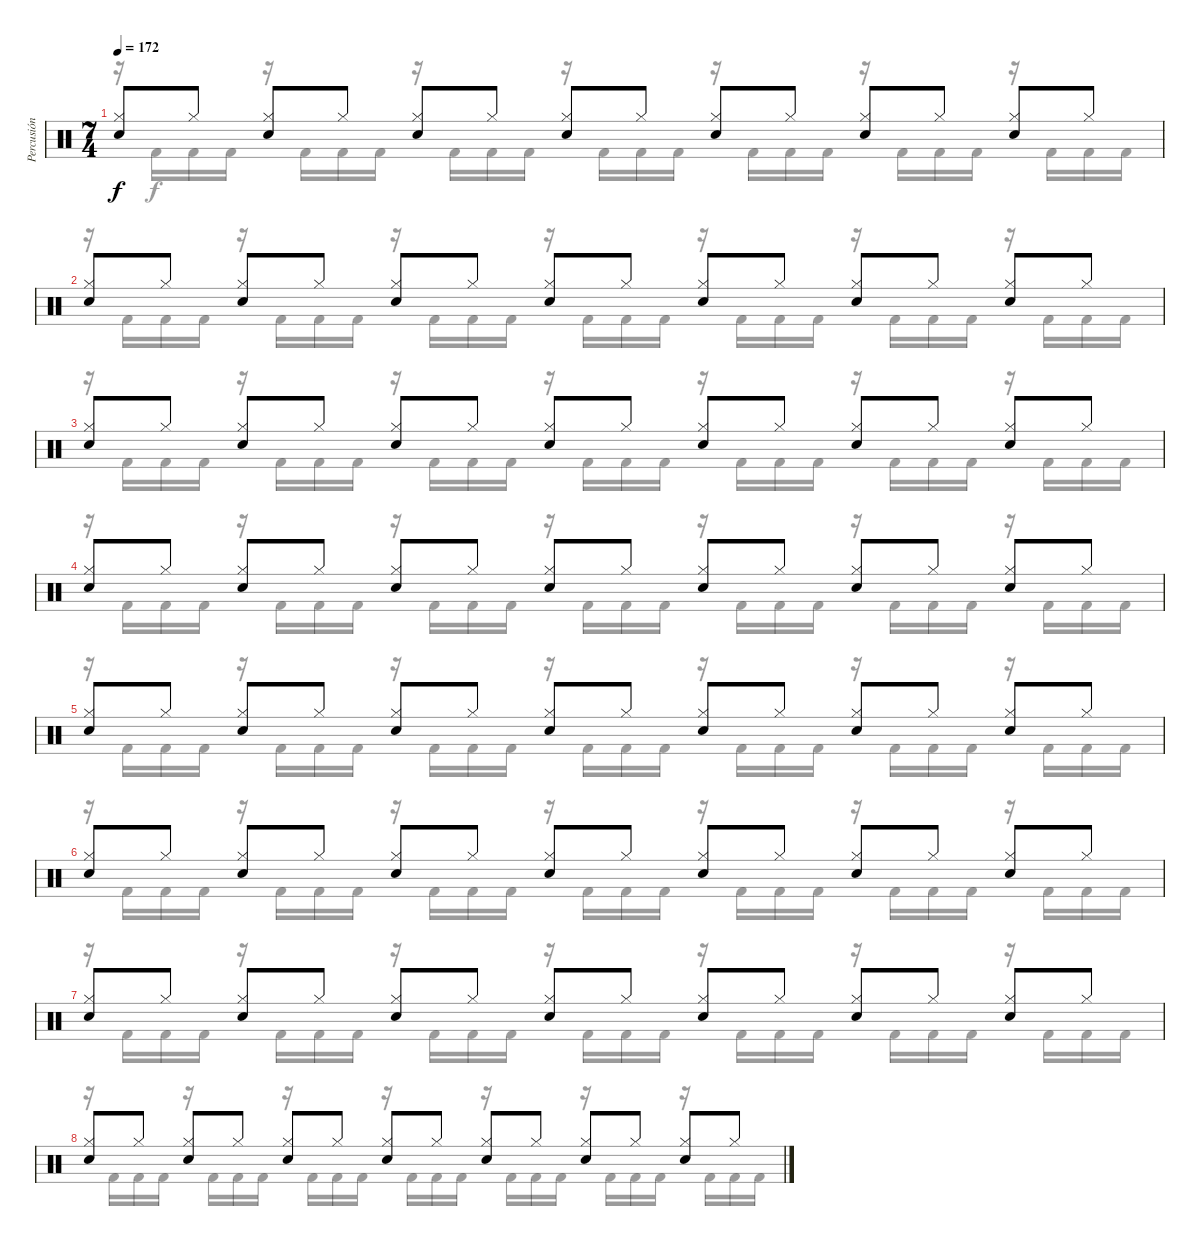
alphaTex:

\track ("Percusión" "Percusión") {instrument percussion}
\staff {score}
\articulation defaults
\voice
\ts (7 4)
\tempo 172
\clef neutral
\ks c
("Hi-Hat (closed)" "Snare (hit) 2").8{dy f} "Hi-Hat (closed)".8 ("Hi-Hat (closed)" "Snare (hit) 2").8 "Hi-Hat (closed)".8 ("Hi-Hat (closed)" "Snare (hit) 2").8 "Hi-Hat (closed)".8 ("Hi-Hat (closed)" "Snare (hit) 2").8 "Hi-Hat (closed)".8 ("Hi-Hat (closed)" "Snare (hit) 2").8 "Hi-Hat (closed)".8 ("Hi-Hat (closed)" "Snare (hit) 2").8 "Hi-Hat (closed)".8 ("Hi-Hat (closed)" "Snare (hit) 2").8 "Hi-Hat (closed)".8 |
("Hi-Hat (closed)" "Snare (hit) 2").8 "Hi-Hat (closed)".8 ("Hi-Hat (closed)" "Snare (hit) 2").8 "Hi-Hat (closed)".8 ("Hi-Hat (closed)" "Snare (hit) 2").8 "Hi-Hat (closed)".8 ("Hi-Hat (closed)" "Snare (hit) 2").8 "Hi-Hat (closed)".8 ("Hi-Hat (closed)" "Snare (hit) 2").8 "Hi-Hat (closed)".8 ("Hi-Hat (closed)" "Snare (hit) 2").8 "Hi-Hat (closed)".8 ("Hi-Hat (closed)" "Snare (hit) 2").8 "Hi-Hat (closed)".8 |
("Hi-Hat (closed)" "Snare (hit) 2").8 "Hi-Hat (closed)".8 ("Hi-Hat (closed)" "Snare (hit) 2").8 "Hi-Hat (closed)".8 ("Hi-Hat (closed)" "Snare (hit) 2").8 "Hi-Hat (closed)".8 ("Hi-Hat (closed)" "Snare (hit) 2").8 "Hi-Hat (closed)".8 ("Hi-Hat (closed)" "Snare (hit) 2").8 "Hi-Hat (closed)".8 ("Hi-Hat (closed)" "Snare (hit) 2").8 "Hi-Hat (closed)".8 ("Hi-Hat (closed)" "Snare (hit) 2").8 "Hi-Hat (closed)".8 |
("Hi-Hat (closed)" "Snare (hit) 2").8 "Hi-Hat (closed)".8 ("Hi-Hat (closed)" "Snare (hit) 2").8 "Hi-Hat (closed)".8 ("Hi-Hat (closed)" "Snare (hit) 2").8 "Hi-Hat (closed)".8 ("Hi-Hat (closed)" "Snare (hit) 2").8 "Hi-Hat (closed)".8 ("Hi-Hat (closed)" "Snare (hit) 2").8 "Hi-Hat (closed)".8 ("Hi-Hat (closed)" "Snare (hit) 2").8 "Hi-Hat (closed)".8 ("Hi-Hat (closed)" "Snare (hit) 2").8 "Hi-Hat (closed)".8 |
("Hi-Hat (closed)" "Snare (hit) 2").8 "Hi-Hat (closed)".8 ("Hi-Hat (closed)" "Snare (hit) 2").8 "Hi-Hat (closed)".8 ("Hi-Hat (closed)" "Snare (hit) 2").8 "Hi-Hat (closed)".8 ("Hi-Hat (closed)" "Snare (hit) 2").8 "Hi-Hat (closed)".8 ("Hi-Hat (closed)" "Snare (hit) 2").8 "Hi-Hat (closed)".8 ("Hi-Hat (closed)" "Snare (hit) 2").8 "Hi-Hat (closed)".8 ("Hi-Hat (closed)" "Snare (hit) 2").8 "Hi-Hat (closed)".8 |
("Hi-Hat (closed)" "Snare (hit) 2").8 "Hi-Hat (closed)".8 ("Hi-Hat (closed)" "Snare (hit) 2").8 "Hi-Hat (closed)".8 ("Hi-Hat (closed)" "Snare (hit) 2").8 "Hi-Hat (closed)".8 ("Hi-Hat (closed)" "Snare (hit) 2").8 "Hi-Hat (closed)".8 ("Hi-Hat (closed)" "Snare (hit) 2").8 "Hi-Hat (closed)".8 ("Hi-Hat (closed)" "Snare (hit) 2").8 "Hi-Hat (closed)".8 ("Hi-Hat (closed)" "Snare (hit) 2").8 "Hi-Hat (closed)".8 |
("Hi-Hat (closed)" "Snare (hit) 2").8 "Hi-Hat (closed)".8 ("Hi-Hat (closed)" "Snare (hit) 2").8 "Hi-Hat (closed)".8 ("Hi-Hat (closed)" "Snare (hit) 2").8 "Hi-Hat (closed)".8 ("Hi-Hat (closed)" "Snare (hit) 2").8 "Hi-Hat (closed)".8 ("Hi-Hat (closed)" "Snare (hit) 2").8 "Hi-Hat (closed)".8 ("Hi-Hat (closed)" "Snare (hit) 2").8 "Hi-Hat (closed)".8 ("Hi-Hat (closed)" "Snare (hit) 2").8 "Hi-Hat (closed)".8 |
("Hi-Hat (closed)" "Snare (hit) 2").8 "Hi-Hat (closed)".8 ("Hi-Hat (closed)" "Snare (hit) 2").8 "Hi-Hat (closed)".8 ("Hi-Hat (closed)" "Snare (hit) 2").8 "Hi-Hat (closed)".8 ("Hi-Hat (closed)" "Snare (hit) 2").8 "Hi-Hat (closed)".8 ("Hi-Hat (closed)" "Snare (hit) 2").8 "Hi-Hat (closed)".8 ("Hi-Hat (closed)" "Snare (hit) 2").8 "Hi-Hat (closed)".8 ("Hi-Hat (closed)" "Snare (hit) 2").8 "Hi-Hat (closed)".8
\voice
\clef neutral
\ottava regular
\simile none
\ks c
r.16{dy f} "Kick (hit) 2".16 "Kick (hit) 2".16 "Kick (hit) 2".16 r.16 "Kick (hit) 2".16 "Kick (hit) 2".16 "Kick (hit) 2".16 r.16 "Kick (hit) 2".16 "Kick (hit) 2".16 "Kick (hit) 2".16 r.16 "Kick (hit) 2".16 "Kick (hit) 2".16 "Kick (hit) 2".16 r.16 "Kick (hit) 2".16 "Kick (hit) 2".16 "Kick (hit) 2".16 r.16 "Kick (hit) 2".16 "Kick (hit) 2".16 "Kick (hit) 2".16 r.16 "Kick (hit) 2".16 "Kick (hit) 2".16 "Kick (hit) 2".16 |
r.16 "Kick (hit) 2".16 "Kick (hit) 2".16 "Kick (hit) 2".16 r.16 "Kick (hit) 2".16 "Kick (hit) 2".16 "Kick (hit) 2".16 r.16 "Kick (hit) 2".16 "Kick (hit) 2".16 "Kick (hit) 2".16 r.16 "Kick (hit) 2".16 "Kick (hit) 2".16 "Kick (hit) 2".16 r.16 "Kick (hit) 2".16 "Kick (hit) 2".16 "Kick (hit) 2".16 r.16 "Kick (hit) 2".16 "Kick (hit) 2".16 "Kick (hit) 2".16 r.16 "Kick (hit) 2".16 "Kick (hit) 2".16 "Kick (hit) 2".16 |
r.16 "Kick (hit) 2".16 "Kick (hit) 2".16 "Kick (hit) 2".16 r.16 "Kick (hit) 2".16 "Kick (hit) 2".16 "Kick (hit) 2".16 r.16 "Kick (hit) 2".16 "Kick (hit) 2".16 "Kick (hit) 2".16 r.16 "Kick (hit) 2".16 "Kick (hit) 2".16 "Kick (hit) 2".16 r.16 "Kick (hit) 2".16 "Kick (hit) 2".16 "Kick (hit) 2".16 r.16 "Kick (hit) 2".16 "Kick (hit) 2".16 "Kick (hit) 2".16 r.16 "Kick (hit) 2".16 "Kick (hit) 2".16 "Kick (hit) 2".16 |
r.16 "Kick (hit) 2".16 "Kick (hit) 2".16 "Kick (hit) 2".16 r.16 "Kick (hit) 2".16 "Kick (hit) 2".16 "Kick (hit) 2".16 r.16 "Kick (hit) 2".16 "Kick (hit) 2".16 "Kick (hit) 2".16 r.16 "Kick (hit) 2".16 "Kick (hit) 2".16 "Kick (hit) 2".16 r.16 "Kick (hit) 2".16 "Kick (hit) 2".16 "Kick (hit) 2".16 r.16 "Kick (hit) 2".16 "Kick (hit) 2".16 "Kick (hit) 2".16 r.16 "Kick (hit) 2".16 "Kick (hit) 2".16 "Kick (hit) 2".16 |
r.16 "Kick (hit) 2".16 "Kick (hit) 2".16 "Kick (hit) 2".16 r.16 "Kick (hit) 2".16 "Kick (hit) 2".16 "Kick (hit) 2".16 r.16 "Kick (hit) 2".16 "Kick (hit) 2".16 "Kick (hit) 2".16 r.16 "Kick (hit) 2".16 "Kick (hit) 2".16 "Kick (hit) 2".16 r.16 "Kick (hit) 2".16 "Kick (hit) 2".16 "Kick (hit) 2".16 r.16 "Kick (hit) 2".16 "Kick (hit) 2".16 "Kick (hit) 2".16 r.16 "Kick (hit) 2".16 "Kick (hit) 2".16 "Kick (hit) 2".16 |
r.16 "Kick (hit) 2".16 "Kick (hit) 2".16 "Kick (hit) 2".16 r.16 "Kick (hit) 2".16 "Kick (hit) 2".16 "Kick (hit) 2".16 r.16 "Kick (hit) 2".16 "Kick (hit) 2".16 "Kick (hit) 2".16 r.16 "Kick (hit) 2".16 "Kick (hit) 2".16 "Kick (hit) 2".16 r.16 "Kick (hit) 2".16 "Kick (hit) 2".16 "Kick (hit) 2".16 r.16 "Kick (hit) 2".16 "Kick (hit) 2".16 "Kick (hit) 2".16 r.16 "Kick (hit) 2".16 "Kick (hit) 2".16 "Kick (hit) 2".16 |
r.16 "Kick (hit) 2".16 "Kick (hit) 2".16 "Kick (hit) 2".16 r.16 "Kick (hit) 2".16 "Kick (hit) 2".16 "Kick (hit) 2".16 r.16 "Kick (hit) 2".16 "Kick (hit) 2".16 "Kick (hit) 2".16 r.16 "Kick (hit) 2".16 "Kick (hit) 2".16 "Kick (hit) 2".16 r.16 "Kick (hit) 2".16 "Kick (hit) 2".16 "Kick (hit) 2".16 r.16 "Kick (hit) 2".16 "Kick (hit) 2".16 "Kick (hit) 2".16 r.16 "Kick (hit) 2".16 "Kick (hit) 2".16 "Kick (hit) 2".16 |
r.16 "Kick (hit) 2".16 "Kick (hit) 2".16 "Kick (hit) 2".16 r.16 "Kick (hit) 2".16 "Kick (hit) 2".16 "Kick (hit) 2".16 r.16 "Kick (hit) 2".16 "Kick (hit) 2".16 "Kick (hit) 2".16 r.16 "Kick (hit) 2".16 "Kick (hit) 2".16 "Kick (hit) 2".16 r.16 "Kick (hit) 2".16 "Kick (hit) 2".16 "Kick (hit) 2".16 r.16 "Kick (hit) 2".16 "Kick (hit) 2".16 "Kick (hit) 2".16 r.16 "Kick (hit) 2".16 "Kick (hit) 2".16 "Kick (hit) 2".16
